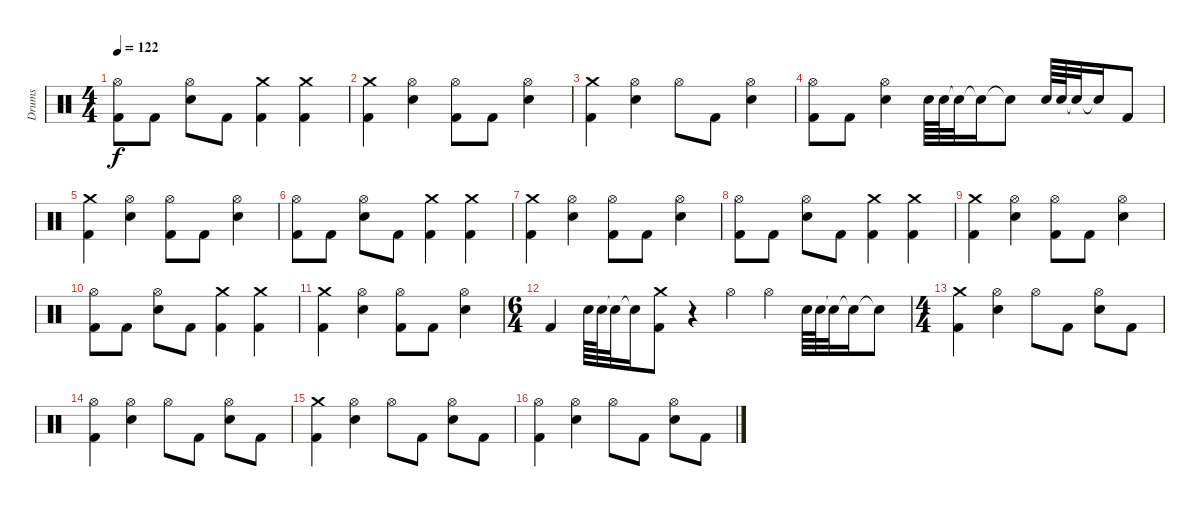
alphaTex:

\track ("Drums" "Drums") {instrument percussion}
\staff {score}
\articulation defaults
\ts (4 4)
\tempo 122
\clef neutral
\ks c
("Hi-Hat (open)" "Kick (hit) 2").8{dy f} "Kick (hit) 2".8 ("Hi-Hat (open)" "Electric Snare (hit)").8 "Kick (hit) 2".8 ("Crash medium (hit)" "Kick (hit) 2").4 ("Crash medium (hit)" "Kick (hit) 2").4 |
("Crash medium (hit)" "Kick (hit) 2").4 ("Hi-Hat (open)" "Electric Snare (hit)").4 ("Hi-Hat (open)" "Kick (hit) 2").8 "Kick (hit) 2".8 ("Hi-Hat (open)" "Electric Snare (hit)").4 |
("Crash medium (hit)" "Kick (hit) 2").4 ("Hi-Hat (open)" "Electric Snare (hit)").4 "Hi-Hat (open)".8 "Kick (hit) 2".8 ("Hi-Hat (open)" "Electric Snare (hit)").4 |
("Hi-Hat (open)" "Kick (hit) 2").8 "Kick (hit) 2".8 ("Hi-Hat (open)" "Electric Snare (hit)").4 "Electric Snare (hit)".64 "Electric Snare (hit)".64 "Snare (hit)"{t}.32 "Snare (hit)"{t}.16 "Snare (hit)"{t}.8 "Electric Snare (hit)".64 "Electric Snare (hit)".64 "Snare (hit)"{t}.32 "Snare (hit)"{t}.16 "Kick (hit) 2".8 |
("Crash medium (hit)" "Kick (hit) 2").4 ("Hi-Hat (open)" "Electric Snare (hit)").4 ("Hi-Hat (open)" "Kick (hit) 2").8 "Kick (hit) 2".8 ("Hi-Hat (open)" "Electric Snare (hit)").4 |
("Hi-Hat (open)" "Kick (hit) 2").8 "Kick (hit) 2".8 ("Hi-Hat (open)" "Electric Snare (hit)").8 "Kick (hit) 2".8 ("Crash medium (hit)" "Kick (hit) 2").4 ("Crash medium (hit)" "Kick (hit) 2").4 |
("Crash medium (hit)" "Kick (hit) 2").4 ("Hi-Hat (open)" "Electric Snare (hit)").4 ("Hi-Hat (open)" "Kick (hit) 2").8 "Kick (hit) 2".8 ("Hi-Hat (open)" "Electric Snare (hit)").4 |
("Hi-Hat (open)" "Kick (hit) 2").8 "Kick (hit) 2".8 ("Hi-Hat (open)" "Electric Snare (hit)").8 "Kick (hit) 2".8 ("Crash medium (hit)" "Kick (hit) 2").4 ("Crash medium (hit)" "Kick (hit) 2").4 |
("Crash medium (hit)" "Kick (hit) 2").4 ("Hi-Hat (open)" "Electric Snare (hit)").4 ("Hi-Hat (open)" "Kick (hit) 2").8 "Kick (hit) 2".8 ("Hi-Hat (open)" "Electric Snare (hit)").4 |
("Hi-Hat (open)" "Kick (hit) 2").8 "Kick (hit) 2".8 ("Hi-Hat (open)" "Electric Snare (hit)").8 "Kick (hit) 2".8 ("Crash medium (hit)" "Kick (hit) 2").4 ("Crash medium (hit)" "Kick (hit) 2").4 |
("Crash medium (hit)" "Kick (hit) 2").4 ("Hi-Hat (open)" "Electric Snare (hit)").4 ("Hi-Hat (open)" "Kick (hit) 2").8 "Kick (hit) 2".8 ("Hi-Hat (open)" "Electric Snare (hit)").4 |
\ts (6 4)
"Kick (hit) 2".4 "Electric Snare (hit)".64 "Electric Snare (hit)".64 "Snare (hit)"{t}.32 "Snare (hit)"{t}.16 ("Crash medium (hit)" "Kick (hit) 2").8 r.4 "Hi-Hat (open)".4 "Hi-Hat (open)".4 "Electric Snare (hit)".64 "Electric Snare (hit)".64 "Snare (hit)"{t}.32 "Snare (hit)"{t}.16 "Snare (hit)"{t}.8 |
\ts (4 4)
("Crash medium (hit)" "Kick (hit) 2").4 ("Hi-Hat (open)" "Electric Snare (hit)").4 "Hi-Hat (open)".8 "Kick (hit) 2".8 ("Hi-Hat (open)" "Electric Snare (hit)").8 "Kick (hit) 2".8 |
("Hi-Hat (open)" "Kick (hit) 2").4 ("Hi-Hat (open)" "Electric Snare (hit)").4 "Hi-Hat (open)".8 "Kick (hit) 2".8 ("Hi-Hat (open)" "Electric Snare (hit)").8 "Kick (hit) 2".8 |
("Crash medium (hit)" "Kick (hit) 2").4 ("Hi-Hat (open)" "Electric Snare (hit)").4 "Hi-Hat (open)".8 "Kick (hit) 2".8 ("Hi-Hat (open)" "Electric Snare (hit)").8 "Kick (hit) 2".8 |
("Hi-Hat (open)" "Kick (hit) 2").4 ("Hi-Hat (open)" "Electric Snare (hit)").4 "Hi-Hat (open)".8 "Kick (hit) 2".8 ("Hi-Hat (open)" "Electric Snare (hit)").8 "Kick (hit) 2".8
